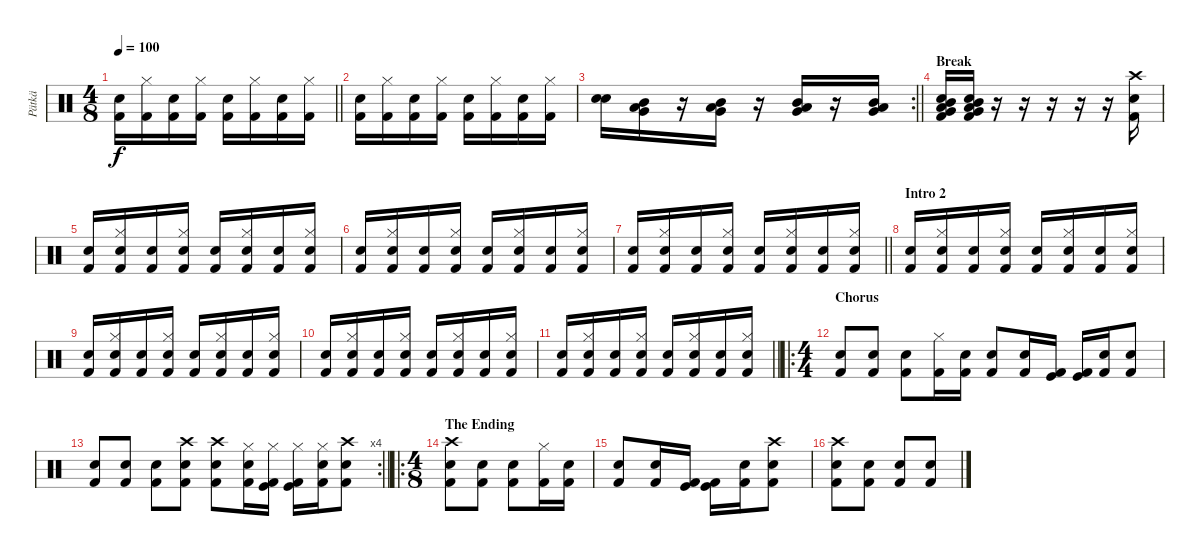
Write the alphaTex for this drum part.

\track ("Pätkä" "Pätkä") {instrument percussion}
\staff {score}
\articulation defaults
\ts (4 8)
\tempo 100
\clef neutral
\barLineRight lightlight
\ks c
("Snare (hit) 2" "Kick (hit) 2").16{dy f} ("Hi-Hat (closed)" "Kick (hit) 2").16 ("Snare (hit) 2" "Kick (hit) 2").16 ("Hi-Hat (closed)" "Kick (hit) 2").16 ("Snare (hit) 2" "Kick (hit) 2").16 ("Hi-Hat (closed)" "Kick (hit) 2").16 ("Snare (hit) 2" "Kick (hit) 2").16 ("Hi-Hat (closed)" "Kick (hit) 2").16 |
("Snare (hit) 2" "Kick (hit) 2").16 ("Hi-Hat (closed)" "Kick (hit) 2").16 ("Snare (hit) 2" "Kick (hit) 2").16 ("Hi-Hat (closed)" "Kick (hit) 2").16 ("Snare (hit) 2" "Kick (hit) 2").16 ("Hi-Hat (closed)" "Kick (hit) 2").16 ("Snare (hit) 2" "Kick (hit) 2").16 ("Hi-Hat (closed)" "Kick (hit) 2").16 |
\rc 2
\barLineRight lightlight
("Snare (hit) 2" "Electric Snare (hit)").16 ("Mid Tom (hit)" "Very Low Tom (hit)" "Low Tom (hit)").16 r.16 ("Mid Tom (hit)" "Very Low Tom (hit)" "Low Tom (hit)").16 r.16 ("Mid Tom (hit)" "Very Low Tom (hit)" "Low Tom (hit)").16 r.16 ("Mid Tom (hit)" "Very Low Tom (hit)" "Low Tom (hit)").16 |
\section ("" "Break")
("Low Tom (hit)" "Very Low Tom (hit)" "Mid Tom (hit)" "Electric Snare (hit)" "Kick (hit) 2").16 ("Low Tom (hit)" "Very Low Tom (hit)" "Mid Tom (hit)" "Electric Snare (hit)" "Kick (hit) 2").16 r.16 r.16 r.16 r.16 r.16 ("Crash high (hit)" "Electric Snare (hit)" "Kick (hit) 2").16 |
("Snare (hit) 2" "Kick (hit) 2").16 ("Hi-Hat (closed)" "Electric Snare (hit)" "Kick (hit) 2").16 ("Snare (hit) 2" "Kick (hit) 2").16 ("Hi-Hat (closed)" "Electric Snare (hit)" "Kick (hit) 2").16 ("Snare (hit) 2" "Kick (hit) 2").16 ("Hi-Hat (closed)" "Electric Snare (hit)" "Kick (hit) 2").16 ("Snare (hit) 2" "Kick (hit) 2").16 ("Hi-Hat (closed)" "Electric Snare (hit)" "Kick (hit) 2").16 |
("Snare (hit) 2" "Kick (hit) 2").16 ("Hi-Hat (closed)" "Electric Snare (hit)" "Kick (hit) 2").16 ("Snare (hit) 2" "Kick (hit) 2").16 ("Hi-Hat (closed)" "Electric Snare (hit)" "Kick (hit) 2").16 ("Snare (hit) 2" "Kick (hit) 2").16 ("Hi-Hat (closed)" "Electric Snare (hit)" "Kick (hit) 2").16 ("Snare (hit) 2" "Kick (hit) 2").16 ("Hi-Hat (closed)" "Electric Snare (hit)" "Kick (hit) 2").16 |
\barLineRight lightlight
("Snare (hit) 2" "Kick (hit) 2").16 ("Hi-Hat (closed)" "Electric Snare (hit)" "Kick (hit) 2").16 ("Snare (hit) 2" "Kick (hit) 2").16 ("Hi-Hat (closed)" "Electric Snare (hit)" "Kick (hit) 2").16 ("Snare (hit) 2" "Kick (hit) 2").16 ("Hi-Hat (closed)" "Electric Snare (hit)" "Kick (hit) 2").16 ("Snare (hit) 2" "Kick (hit) 2").16 ("Hi-Hat (closed)" "Electric Snare (hit)" "Kick (hit) 2").16 |
\section ("" "Intro 2")
("Snare (hit) 2" "Kick (hit) 2").16 ("Hi-Hat (closed)" "Electric Snare (hit)" "Kick (hit) 2").16 ("Snare (hit) 2" "Kick (hit) 2").16 ("Hi-Hat (closed)" "Electric Snare (hit)" "Kick (hit) 2").16 ("Snare (hit) 2" "Kick (hit) 2").16 ("Hi-Hat (closed)" "Electric Snare (hit)" "Kick (hit) 2").16 ("Snare (hit) 2" "Kick (hit) 2").16 ("Hi-Hat (closed)" "Electric Snare (hit)" "Kick (hit) 2").16 |
("Snare (hit) 2" "Kick (hit) 2").16 ("Hi-Hat (closed)" "Electric Snare (hit)" "Kick (hit) 2").16 ("Snare (hit) 2" "Kick (hit) 2").16 ("Hi-Hat (closed)" "Electric Snare (hit)" "Kick (hit) 2").16 ("Snare (hit) 2" "Kick (hit) 2").16 ("Hi-Hat (closed)" "Electric Snare (hit)" "Kick (hit) 2").16 ("Snare (hit) 2" "Kick (hit) 2").16 ("Hi-Hat (closed)" "Electric Snare (hit)" "Kick (hit) 2").16 |
("Snare (hit) 2" "Kick (hit) 2").16 ("Hi-Hat (closed)" "Electric Snare (hit)" "Kick (hit) 2").16 ("Snare (hit) 2" "Kick (hit) 2").16 ("Hi-Hat (closed)" "Electric Snare (hit)" "Kick (hit) 2").16 ("Snare (hit) 2" "Kick (hit) 2").16 ("Hi-Hat (closed)" "Electric Snare (hit)" "Kick (hit) 2").16 ("Snare (hit) 2" "Kick (hit) 2").16 ("Hi-Hat (closed)" "Electric Snare (hit)" "Kick (hit) 2").16 |
\barLineRight lightlight
("Snare (hit) 2" "Kick (hit) 2").16 ("Hi-Hat (closed)" "Electric Snare (hit)" "Kick (hit) 2").16 ("Snare (hit) 2" "Kick (hit) 2").16 ("Hi-Hat (closed)" "Electric Snare (hit)" "Kick (hit) 2").16 ("Snare (hit) 2" "Kick (hit) 2").16 ("Hi-Hat (closed)" "Electric Snare (hit)" "Kick (hit) 2").16 ("Snare (hit) 2" "Kick (hit) 2").16 ("Hi-Hat (closed)" "Electric Snare (hit)" "Kick (hit) 2").16 |
\ro
\ts (4 4)
\section ("" "Chorus")
("Electric Snare (hit)" "Kick (hit) 2").8 ("Snare (hit) 2" "Kick (hit) 2").8 ("Electric Snare (hit)" "Kick (hit) 2").8 ("Hi-Hat (closed)" "Kick (hit) 2").16 ("Snare (hit) 2" "Kick (hit) 2").16 ("Snare (hit) 2" "Kick (hit) 2").8 ("Snare (hit) 2" "Kick (hit) 2").16 ("Kick (hit)" "Kick (hit) 2").16 ("Kick (hit)" "Kick (hit) 2").16 ("Snare (hit) 2" "Kick (hit) 2").16 ("Electric Snare (hit)" "Kick (hit) 2").8 |
\rc 4
\barLineRight lightlight
("Electric Snare (hit)" "Kick (hit) 2").8 ("Snare (hit) 2" "Kick (hit) 2").8 ("Electric Snare (hit)" "Kick (hit) 2").8 ("Crash high (hit)" "Snare (hit) 2" "Kick (hit) 2").8 ("Crash high (hit)" "Electric Snare (hit)" "Kick (hit) 2").8 ("Hi-Hat (closed)" "Snare (hit) 2" "Kick (hit) 2").16 ("Hi-Hat (closed)" "Kick (hit)" "Kick (hit) 2").16 ("Hi-Hat (closed)" "Kick (hit)" "Kick (hit) 2").16 ("Hi-Hat (closed)" "Snare (hit) 2" "Kick (hit) 2").16 ("Crash high (hit)" "Electric Snare (hit)" "Kick (hit) 2").8 |
\ro
\ts (4 8)
\section ("" "The Ending")
("Crash high (hit)" "Electric Snare (hit)" "Kick (hit) 2").8 ("Snare (hit) 2" "Kick (hit) 2").8 ("Electric Snare (hit)" "Kick (hit) 2").8 ("Hi-Hat (closed)" "Kick (hit) 2").16 ("Snare (hit) 2" "Kick (hit) 2").16 |
("Snare (hit) 2" "Kick (hit) 2").8 ("Snare (hit) 2" "Kick (hit) 2").16 ("Kick (hit)" "Kick (hit) 2").16 ("Kick (hit)" "Kick (hit) 2").16 ("Snare (hit) 2" "Kick (hit) 2").16 ("Crash high (hit)" "Electric Snare (hit)" "Kick (hit) 2").8 |
("Crash high (hit)" "Electric Snare (hit)" "Kick (hit) 2").8 ("Snare (hit) 2" "Kick (hit) 2").8 ("Electric Snare (hit)" "Kick (hit) 2").8 ("Snare (hit) 2" "Kick (hit) 2").8
